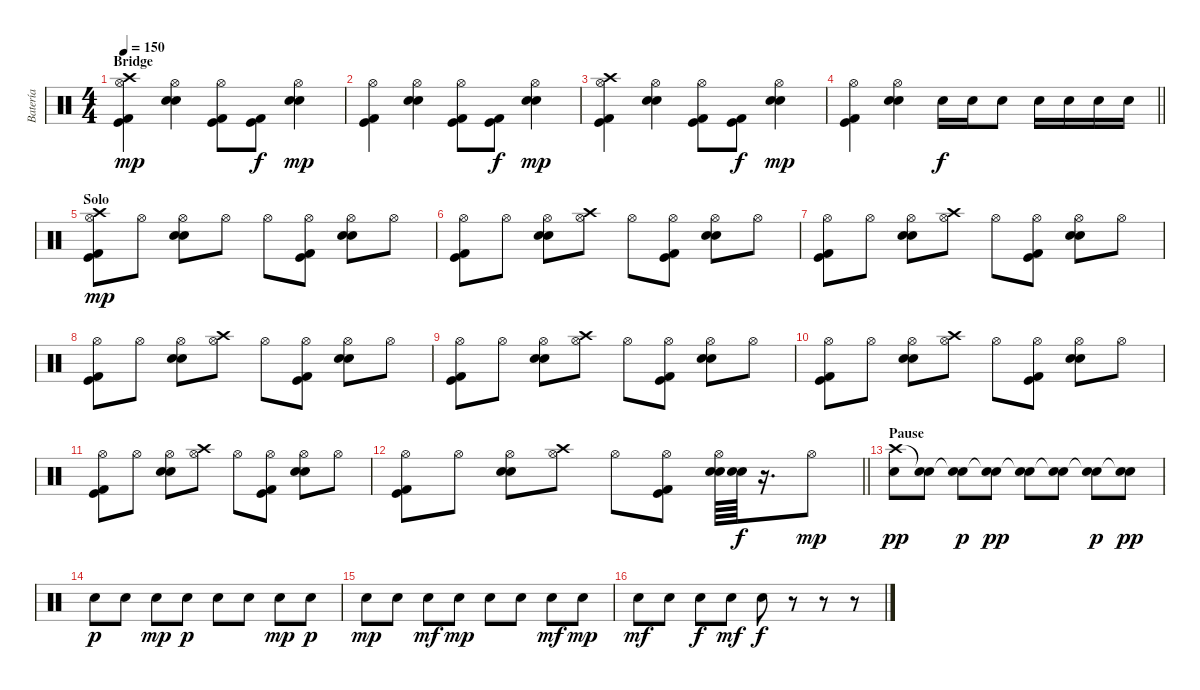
\track ("Batería" "Batería") {instrument percussion}
\staff {score}
\articulation defaults
\ts (4 4)
\section ("" "Bridge")
\tempo 150
\clef neutral
\ks c
("Crash high (hit)" "Hi-Hat (open)" "Kick (hit)" "Kick (hit) 2").4{dy mp} ("Hi-Hat (open)" "Snare (hit) 2" "Electric Snare (hit)").4 ("Hi-Hat (open)" "Kick (hit)" "Kick (hit) 2").8 ("Kick (hit) 2" "Kick (hit)").8{dy f} ("Hi-Hat (open)" "Snare (hit) 2" "Electric Snare (hit)").4{dy mp} |
("Hi-Hat (open)" "Kick (hit)" "Kick (hit) 2").4 ("Hi-Hat (open)" "Snare (hit) 2" "Electric Snare (hit)").4 ("Hi-Hat (open)" "Kick (hit)" "Kick (hit) 2").8 ("Kick (hit) 2" "Kick (hit)").8{dy f} ("Hi-Hat (open)" "Snare (hit) 2" "Electric Snare (hit)").4{dy mp} |
("Crash high (hit)" "Hi-Hat (open)" "Kick (hit)" "Kick (hit) 2").4 ("Hi-Hat (open)" "Snare (hit) 2" "Electric Snare (hit)").4 ("Hi-Hat (open)" "Kick (hit)" "Kick (hit) 2").8 ("Kick (hit)" "Kick (hit) 2").8{dy f} ("Hi-Hat (open)" "Snare (hit) 2" "Electric Snare (hit)").4{dy mp} |
\barLineRight lightlight
("Hi-Hat (open)" "Kick (hit)" "Kick (hit) 2").4 ("Hi-Hat (open)" "Snare (hit) 2" "Electric Snare (hit)").4 "Electric Snare (hit)".16{dy f} "Electric Snare (hit)".16 "Electric Snare (hit)".8 "Electric Snare (hit)".16 "Electric Snare (hit)".16 "Electric Snare (hit)".16 "Electric Snare (hit)".16 |
\section ("" "Solo")
("Crash high (hit)" "Kick (hit) 2" "Kick (hit)" "Hi-Hat (open)").8{dy mp} "Hi-Hat (open)".8 ("Snare (hit) 2" "Electric Snare (hit)" "Hi-Hat (open)").8 "Hi-Hat (open)".8 "Hi-Hat (open)".8 ("Kick (hit) 2" "Kick (hit)" "Hi-Hat (open)").8 ("Snare (hit) 2" "Electric Snare (hit)" "Hi-Hat (open)").8 "Hi-Hat (open)".8 |
("Kick (hit) 2" "Kick (hit)" "Hi-Hat (open)").8 "Hi-Hat (open)".8 ("Snare (hit) 2" "Electric Snare (hit)" "Hi-Hat (open)").8 ("Crash high (hit)" "Hi-Hat (open)").8 "Hi-Hat (open)".8 ("Kick (hit) 2" "Kick (hit)" "Hi-Hat (open)").8 ("Snare (hit) 2" "Electric Snare (hit)" "Hi-Hat (open)").8 "Hi-Hat (open)".8 |
("Kick (hit) 2" "Kick (hit)" "Hi-Hat (open)").8 "Hi-Hat (open)".8 ("Snare (hit) 2" "Electric Snare (hit)" "Hi-Hat (open)").8 ("Crash high (hit)" "Hi-Hat (open)").8 "Hi-Hat (open)".8 ("Kick (hit) 2" "Kick (hit)" "Hi-Hat (open)").8 ("Snare (hit) 2" "Electric Snare (hit)" "Hi-Hat (open)").8 "Hi-Hat (open)".8 |
("Kick (hit) 2" "Kick (hit)" "Hi-Hat (open)").8 "Hi-Hat (open)".8 ("Snare (hit) 2" "Electric Snare (hit)" "Hi-Hat (open)").8 ("Crash high (hit)" "Hi-Hat (open)").8 "Hi-Hat (open)".8 ("Kick (hit) 2" "Kick (hit)" "Hi-Hat (open)").8 ("Snare (hit) 2" "Electric Snare (hit)" "Hi-Hat (open)").8 "Hi-Hat (open)".8 |
("Kick (hit) 2" "Kick (hit)" "Hi-Hat (open)").8 "Hi-Hat (open)".8 ("Snare (hit) 2" "Electric Snare (hit)" "Hi-Hat (open)").8 ("Crash high (hit)" "Hi-Hat (open)").8 "Hi-Hat (open)".8 ("Kick (hit) 2" "Kick (hit)" "Hi-Hat (open)").8 ("Snare (hit) 2" "Electric Snare (hit)" "Hi-Hat (open)").8 "Hi-Hat (open)".8 |
("Kick (hit) 2" "Kick (hit)" "Hi-Hat (open)").8 "Hi-Hat (open)".8 ("Snare (hit) 2" "Electric Snare (hit)" "Hi-Hat (open)").8 ("Crash high (hit)" "Hi-Hat (open)").8 "Hi-Hat (open)".8 ("Kick (hit) 2" "Kick (hit)" "Hi-Hat (open)").8 ("Snare (hit) 2" "Electric Snare (hit)" "Hi-Hat (open)").8 "Hi-Hat (open)".8 |
("Kick (hit) 2" "Kick (hit)" "Hi-Hat (open)").8 "Hi-Hat (open)".8 ("Snare (hit) 2" "Electric Snare (hit)" "Hi-Hat (open)").8 ("Crash high (hit)" "Hi-Hat (open)").8 "Hi-Hat (open)".8 ("Kick (hit) 2" "Kick (hit)" "Hi-Hat (open)").8 ("Snare (hit) 2" "Electric Snare (hit)" "Hi-Hat (open)").8 "Hi-Hat (open)".8 |
\barLineRight lightlight
("Kick (hit) 2" "Kick (hit)" "Hi-Hat (open)").8 "Hi-Hat (open)".8 ("Snare (hit) 2" "Electric Snare (hit)" "Hi-Hat (open)").8 ("Crash high (hit)" "Hi-Hat (open)").8 "Hi-Hat (open)".8 ("Kick (hit) 2" "Kick (hit)" "Hi-Hat (open)").8 ("Snare (hit) 2" "Electric Snare (hit)" "Hi-Hat (open)").64 ("Snare (hit) 2" "Electric Snare (hit)").64{dy f} r.16{d} "Hi-Hat (open)".8{dy mp} |
\section ("" "Pause")
("Crash high (hit)" "Electric Snare (hit)").8{dy pp} ("Snare (hit)"{t} "Electric Snare (hit)").8 ("Snare (hit)"{t} "Electric Snare (hit)").8{dy p} ("Snare (hit)"{t} "Electric Snare (hit)").8{dy pp} ("Snare (hit)"{t} "Electric Snare (hit)").8 ("Snare (hit)"{t} "Electric Snare (hit)").8 ("Snare (hit)"{t} "Electric Snare (hit)").8{dy p} ("Snare (hit)"{t} "Electric Snare (hit)").8{dy pp} |
"Electric Snare (hit)".8{dy p} "Electric Snare (hit)".8 "Electric Snare (hit)".8{dy mp} "Electric Snare (hit)".8{dy p} "Electric Snare (hit)".8 "Electric Snare (hit)".8 "Electric Snare (hit)".8{dy mp} "Electric Snare (hit)".8{dy p} |
"Electric Snare (hit)".8{dy mp} "Electric Snare (hit)".8 "Electric Snare (hit)".8{dy mf} "Electric Snare (hit)".8{dy mp} "Electric Snare (hit)".8 "Electric Snare (hit)".8 "Electric Snare (hit)".8{dy mf} "Electric Snare (hit)".8{dy mp} |
"Electric Snare (hit)".8{dy mf} "Electric Snare (hit)".8 "Electric Snare (hit)".8{dy f} "Electric Snare (hit)".8{dy mf} "Electric Snare (hit)".8{dy f} r.8 r.8 r.8
